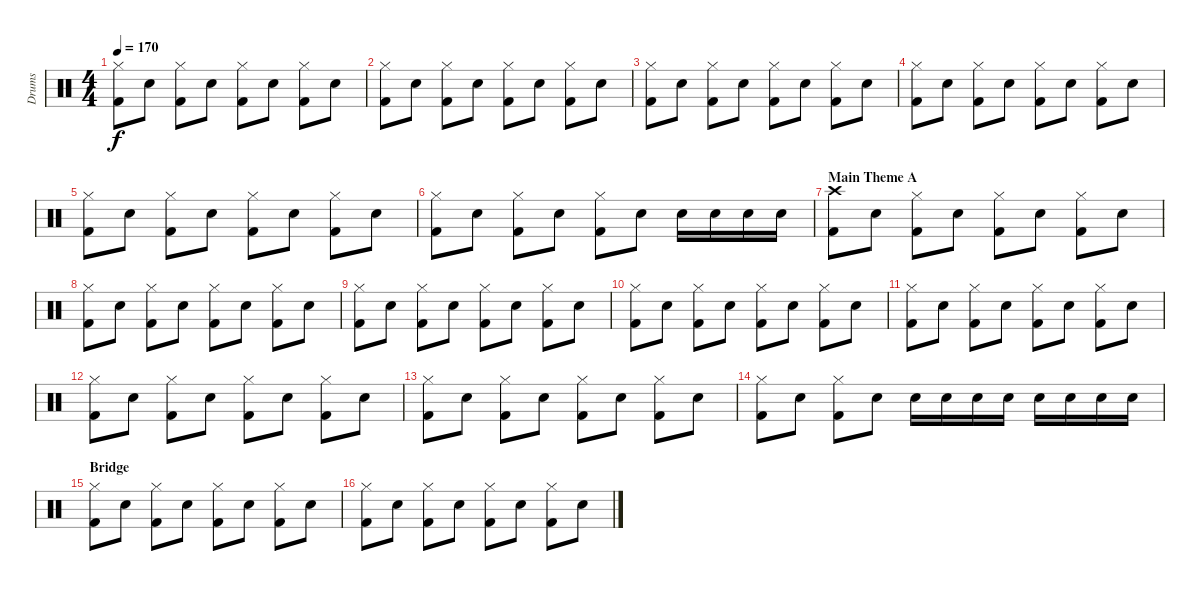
\track ("Drums" "Drums") {instrument percussion}
\staff {score}
\articulation defaults
\ts (4 4)
\tempo 170
\clef neutral
\ks c
("Hi-Hat (closed)" "Kick (hit) 2").8{dy f} "Electric Snare (hit)".8 ("Hi-Hat (closed)" "Kick (hit) 2").8 "Electric Snare (hit)".8 ("Hi-Hat (closed)" "Kick (hit) 2").8 "Electric Snare (hit)".8 ("Hi-Hat (closed)" "Kick (hit) 2").8 "Electric Snare (hit)".8 |
("Hi-Hat (closed)" "Kick (hit) 2").8 "Electric Snare (hit)".8 ("Hi-Hat (closed)" "Kick (hit) 2").8 "Electric Snare (hit)".8 ("Hi-Hat (closed)" "Kick (hit) 2").8 "Electric Snare (hit)".8 ("Hi-Hat (closed)" "Kick (hit) 2").8 "Electric Snare (hit)".8 |
("Hi-Hat (closed)" "Kick (hit) 2").8 "Electric Snare (hit)".8 ("Hi-Hat (closed)" "Kick (hit) 2").8 "Electric Snare (hit)".8 ("Hi-Hat (closed)" "Kick (hit) 2").8 "Electric Snare (hit)".8 ("Hi-Hat (closed)" "Kick (hit) 2").8 "Electric Snare (hit)".8 |
("Hi-Hat (closed)" "Kick (hit) 2").8 "Electric Snare (hit)".8 ("Hi-Hat (closed)" "Kick (hit) 2").8 "Electric Snare (hit)".8 ("Hi-Hat (closed)" "Kick (hit) 2").8 "Electric Snare (hit)".8 ("Hi-Hat (closed)" "Kick (hit) 2").8 "Electric Snare (hit)".8 |
("Hi-Hat (closed)" "Kick (hit) 2").8 "Electric Snare (hit)".8 ("Hi-Hat (closed)" "Kick (hit) 2").8 "Electric Snare (hit)".8 ("Hi-Hat (closed)" "Kick (hit) 2").8 "Electric Snare (hit)".8 ("Hi-Hat (closed)" "Kick (hit) 2").8 "Electric Snare (hit)".8 |
("Hi-Hat (closed)" "Kick (hit) 2").8 "Electric Snare (hit)".8 ("Hi-Hat (closed)" "Kick (hit) 2").8 "Electric Snare (hit)".8 ("Hi-Hat (closed)" "Kick (hit) 2").8 "Electric Snare (hit)".8 "Electric Snare (hit)".16 "Electric Snare (hit)".16 "Electric Snare (hit)".16 "Electric Snare (hit)".16 |
\section ("" "Main Theme A")
("Crash high (hit)" "Kick (hit) 2").8{volume 11} "Electric Snare (hit)".8 ("Hi-Hat (closed)" "Kick (hit) 2").8 "Electric Snare (hit)".8 ("Hi-Hat (closed)" "Kick (hit) 2").8 "Electric Snare (hit)".8 ("Hi-Hat (closed)" "Kick (hit) 2").8 "Electric Snare (hit)".8 |
("Hi-Hat (closed)" "Kick (hit) 2").8 "Electric Snare (hit)".8 ("Hi-Hat (closed)" "Kick (hit) 2").8 "Electric Snare (hit)".8 ("Hi-Hat (closed)" "Kick (hit) 2").8 "Electric Snare (hit)".8 ("Hi-Hat (closed)" "Kick (hit) 2").8 "Electric Snare (hit)".8 |
("Hi-Hat (closed)" "Kick (hit) 2").8 "Electric Snare (hit)".8 ("Hi-Hat (closed)" "Kick (hit) 2").8 "Electric Snare (hit)".8 ("Hi-Hat (closed)" "Kick (hit) 2").8 "Electric Snare (hit)".8 ("Hi-Hat (closed)" "Kick (hit) 2").8 "Electric Snare (hit)".8 |
("Hi-Hat (closed)" "Kick (hit) 2").8 "Electric Snare (hit)".8 ("Hi-Hat (closed)" "Kick (hit) 2").8 "Electric Snare (hit)".8 ("Hi-Hat (closed)" "Kick (hit) 2").8 "Electric Snare (hit)".8 ("Hi-Hat (closed)" "Kick (hit) 2").8 "Electric Snare (hit)".8 |
("Hi-Hat (closed)" "Kick (hit) 2").8 "Electric Snare (hit)".8 ("Hi-Hat (closed)" "Kick (hit) 2").8 "Electric Snare (hit)".8 ("Hi-Hat (closed)" "Kick (hit) 2").8 "Electric Snare (hit)".8 ("Hi-Hat (closed)" "Kick (hit) 2").8 "Electric Snare (hit)".8 |
("Hi-Hat (closed)" "Kick (hit) 2").8 "Electric Snare (hit)".8 ("Hi-Hat (closed)" "Kick (hit) 2").8 "Electric Snare (hit)".8 ("Hi-Hat (closed)" "Kick (hit) 2").8 "Electric Snare (hit)".8 ("Hi-Hat (closed)" "Kick (hit) 2").8 "Electric Snare (hit)".8 |
("Hi-Hat (closed)" "Kick (hit) 2").8 "Electric Snare (hit)".8 ("Hi-Hat (closed)" "Kick (hit) 2").8 "Electric Snare (hit)".8 ("Hi-Hat (closed)" "Kick (hit) 2").8 "Electric Snare (hit)".8 ("Hi-Hat (closed)" "Kick (hit) 2").8 "Electric Snare (hit)".8 |
("Hi-Hat (closed)" "Kick (hit) 2").8 "Electric Snare (hit)".8 ("Hi-Hat (closed)" "Kick (hit) 2").8 "Electric Snare (hit)".8 "Electric Snare (hit)".16 "Electric Snare (hit)".16 "Electric Snare (hit)".16 "Electric Snare (hit)".16 "Electric Snare (hit)".16 "Electric Snare (hit)".16 "Electric Snare (hit)".16 "Electric Snare (hit)".16 |
\section ("" "Bridge")
("Hi-Hat (closed)" "Kick (hit) 2").8 "Electric Snare (hit)".8 ("Hi-Hat (closed)" "Kick (hit) 2").8 "Electric Snare (hit)".8 ("Hi-Hat (closed)" "Kick (hit) 2").8 "Electric Snare (hit)".8 ("Hi-Hat (closed)" "Kick (hit) 2").8 "Electric Snare (hit)".8 |
("Hi-Hat (closed)" "Kick (hit) 2").8 "Electric Snare (hit)".8 ("Hi-Hat (closed)" "Kick (hit) 2").8 "Electric Snare (hit)".8 ("Hi-Hat (closed)" "Kick (hit) 2").8 "Electric Snare (hit)".8 ("Hi-Hat (closed)" "Kick (hit) 2").8 "Electric Snare (hit)".8
